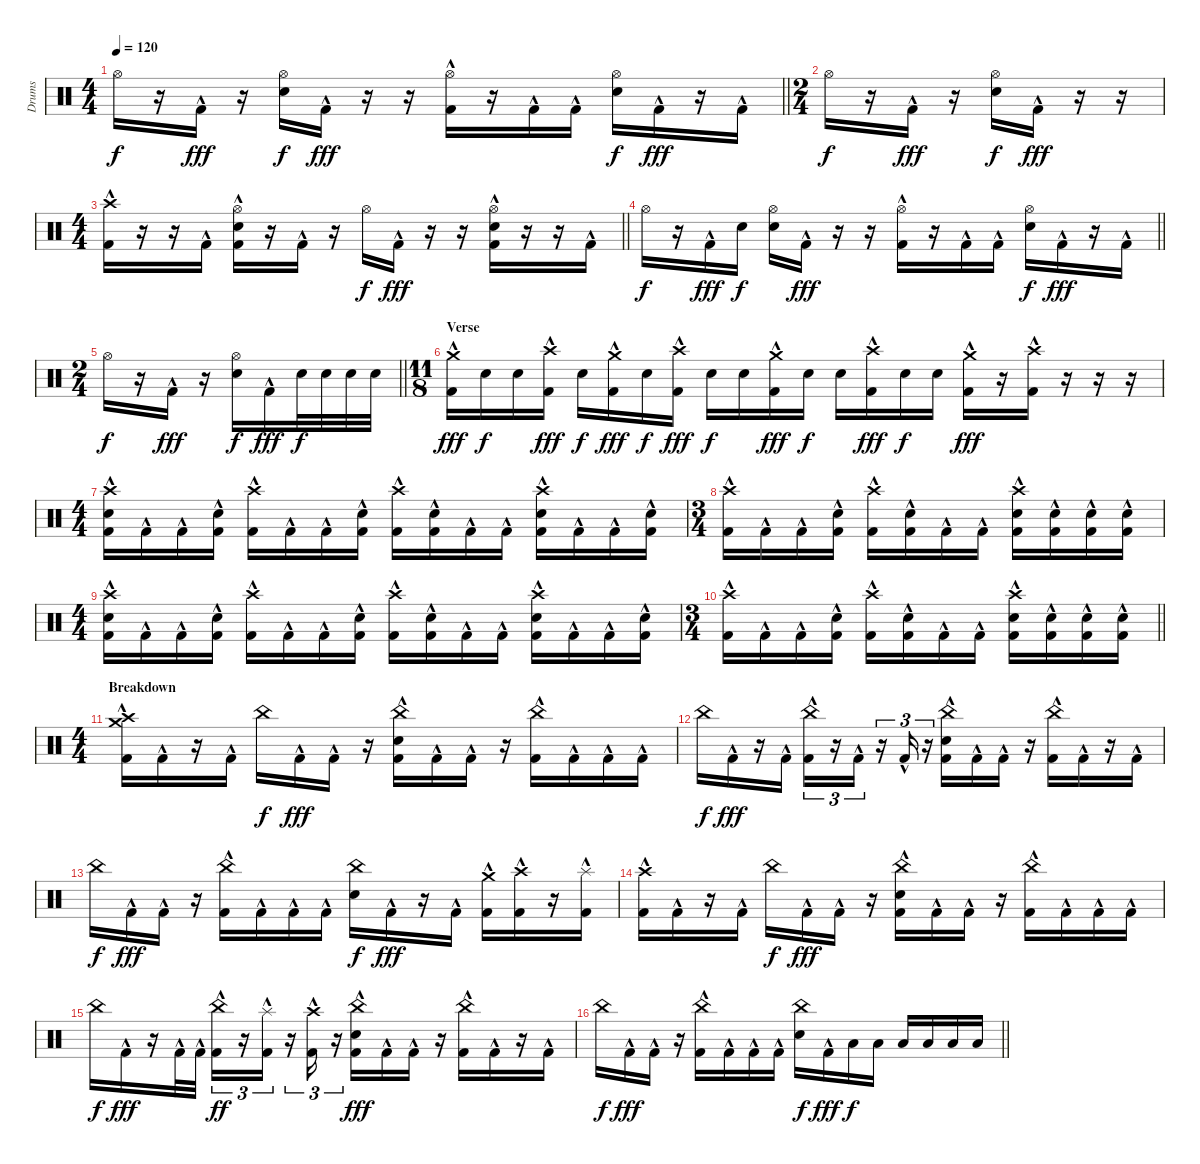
\track ("Drums" "Drums") {instrument percussion}
\staff {score}
\articulation defaults
\ts (4 4)
\tempo 120
\clef neutral
\barLineRight lightlight
\ks c "Hi-Hat (open)".16{dy f}
r.16 "Kick (hit) 2"{hac}.16{dy fff} r.16 ("Electric Snare (hit)" "Hi-Hat (open)").16{dy f} "Kick (hit) 2"{hac}.16{dy fff} r.16 r.16 ("Kick (hit) 2"{hac} "Hi-Hat (open)").16 r.16 "Kick (hit) 2"{hac}.16 "Kick (hit) 2"{hac}.16 ("Electric Snare (hit)" "Hi-Hat (open)").16{dy f} "Kick (hit) 2"{hac}.16{dy fff} r.16 "Kick (hit) 2"{hac}.16 |
\ts (2 4)
"Hi-Hat (open)".16{dy f} r.16 "Kick (hit) 2"{hac}.16{dy fff} r.16 ("Electric Snare (hit)" "Hi-Hat (open)").16{dy f} "Kick (hit) 2"{hac}.16{dy fff} r.16 r.16 |
\ts (4 4)
\barLineRight lightlight
("Kick (hit) 2"{hac} "Crash high (hit)").16 r.16 r.16 "Kick (hit) 2"{hac}.16 ("Kick (hit) 2"{hac} "Electric Snare (hit)" "Hi-Hat (open)").16 r.16 "Kick (hit) 2"{hac}.16 r.16 "Hi-Hat (open)".16{dy f} "Kick (hit) 2"{hac}.16{dy fff} r.16 r.16 ("Kick (hit) 2"{hac} "Electric Snare (hit)" "Hi-Hat (open)").16 r.16 r.16 "Kick (hit) 2"{hac}.16 |
\barLineRight lightlight "Hi-Hat (open)".16{dy f}
r.16 "Kick (hit) 2"{hac}.16{dy fff} "Snare (hit)".16{dy f} ("Electric Snare (hit)" "Hi-Hat (open)").16 "Kick (hit) 2"{hac}.16{dy fff} r.16 r.16 ("Kick (hit) 2"{hac} "Hi-Hat (open)").16 r.16 "Kick (hit) 2"{hac}.16 "Kick (hit) 2"{hac}.16 ("Electric Snare (hit)" "Hi-Hat (open)").16{dy f} "Kick (hit) 2"{hac}.16{dy fff} r.16 "Kick (hit) 2"{hac}.16 |
\ts (2 4)
\barLineRight lightlight "Hi-Hat (open)".16{dy f}
r.16 "Kick (hit) 2"{hac}.16{dy fff} r.16 ("Electric Snare (hit)" "Hi-Hat (open)").16{dy f} "Kick (hit) 2"{hac}.16{dy fff} "Electric Snare (hit)".32{dy f} "Electric Snare (hit)".32 "Electric Snare (hit)".32 "Electric Snare (hit)".32 |
\ts (11 8)
\section ("" "Verse")
("Kick (hit) 2"{hac} "Crash medium (hit)").16{dy fff} "Electric Snare (hit)".16{dy f} "Electric Snare (hit)".16 ("Kick (hit) 2"{hac} "Crash high (hit)").16{dy fff} "Electric Snare (hit)".16{dy f} ("Kick (hit) 2"{hac} "Crash medium (hit)").16{dy fff} "Electric Snare (hit)".16{dy f} ("Kick (hit) 2"{hac} "Crash high (hit)").16{dy fff} "Electric Snare (hit)".16{dy f} "Electric Snare (hit)".16 ("Kick (hit) 2"{hac} "Crash medium (hit)").16{dy fff} "Electric Snare (hit)".16{dy f} "Electric Snare (hit)".16 ("Kick (hit) 2"{hac} "Crash high (hit)").16{dy fff} "Electric Snare (hit)".16{dy f} "Electric Snare (hit)".16 ("Kick (hit) 2"{hac} "Crash medium (hit)").16{dy fff} r.16 ("Kick (hit) 2"{hac} "Crash high (hit)").16 r.16 r.16 r.16 |
\ts (4 4)
("Kick (hit) 2"{hac} "Electric Snare (hit)" "Crash high (hit)").16 "Kick (hit) 2"{hac}.16 "Kick (hit) 2"{hac}.16 ("Kick (hit) 2"{hac} "Electric Snare (hit)").16 ("Kick (hit) 2"{hac} "Crash high (hit)").16 "Kick (hit) 2"{hac}.16 "Kick (hit) 2"{hac}.16 ("Kick (hit) 2"{hac} "Electric Snare (hit)").16 ("Kick (hit) 2"{hac} "Crash high (hit)").16 ("Kick (hit) 2"{hac} "Electric Snare (hit)").16 "Kick (hit) 2"{hac}.16 "Kick (hit) 2"{hac}.16 ("Kick (hit) 2"{hac} "Electric Snare (hit)" "Crash high (hit)").16 "Kick (hit) 2"{hac}.16 "Kick (hit) 2"{hac}.16 ("Kick (hit) 2"{hac} "Electric Snare (hit)").16 |
\ts (3 4)
("Kick (hit) 2"{hac} "Crash high (hit)").16 "Kick (hit) 2"{hac}.16 "Kick (hit) 2"{hac}.16 ("Kick (hit) 2"{hac} "Electric Snare (hit)").16 ("Kick (hit) 2"{hac} "Crash high (hit)").16 ("Kick (hit) 2"{hac} "Electric Snare (hit)").16 "Kick (hit) 2"{hac}.16 "Kick (hit) 2"{hac}.16 ("Kick (hit) 2"{hac} "Electric Snare (hit)" "Crash high (hit)").16 ("Kick (hit) 2"{hac} "Electric Snare (hit)").16 ("Kick (hit) 2"{hac} "Electric Snare (hit)").16 ("Kick (hit) 2"{hac} "Electric Snare (hit)").16 |
\ts (4 4)
("Kick (hit) 2"{hac} "Electric Snare (hit)" "Crash high (hit)").16 "Kick (hit) 2"{hac}.16 "Kick (hit) 2"{hac}.16 ("Kick (hit) 2"{hac} "Electric Snare (hit)").16 ("Kick (hit) 2"{hac} "Crash high (hit)").16 "Kick (hit) 2"{hac}.16 "Kick (hit) 2"{hac}.16 ("Kick (hit) 2"{hac} "Electric Snare (hit)").16 ("Kick (hit) 2"{hac} "Crash high (hit)").16 ("Kick (hit) 2"{hac} "Electric Snare (hit)").16 "Kick (hit) 2"{hac}.16 "Kick (hit) 2"{hac}.16 ("Kick (hit) 2"{hac} "Electric Snare (hit)" "Crash high (hit)").16 "Kick (hit) 2"{hac}.16 "Kick (hit) 2"{hac}.16 ("Kick (hit) 2"{hac} "Electric Snare (hit)").16 |
\ts (3 4)
\barLineRight lightlight
("Kick (hit) 2"{hac} "Crash high (hit)").16 "Kick (hit) 2"{hac}.16 "Kick (hit) 2"{hac}.16 ("Kick (hit) 2"{hac} "Electric Snare (hit)").16 ("Kick (hit) 2"{hac} "Crash high (hit)").16 ("Kick (hit) 2"{hac} "Electric Snare (hit)").16 "Kick (hit) 2"{hac}.16 "Kick (hit) 2"{hac}.16 ("Kick (hit) 2"{hac} "Electric Snare (hit)" "Crash high (hit)").16 ("Kick (hit) 2"{hac} "Electric Snare (hit)").16 ("Kick (hit) 2"{hac} "Electric Snare (hit)").16 ("Kick (hit) 2"{hac} "Electric Snare (hit)").16 |
\ts (4 4)
\section ("" "Breakdown")
("Crash medium (hit)" "Crash high (hit)" "Kick (hit) 2"{hac}).16 "Kick (hit) 2"{hac}.16 r.16 "Kick (hit) 2"{hac}.16 "China (hit)".16{dy f} "Kick (hit) 2"{hac}.16{dy fff} "Kick (hit) 2"{hac}.16 r.16 ("China (hit)" "Electric Snare (hit)" "Kick (hit) 2"{hac}).16 "Kick (hit) 2"{hac}.16 "Kick (hit) 2"{hac}.16 r.16 ("China (hit)" "Kick (hit) 2"{hac}).16 "Kick (hit) 2"{hac}.16 "Kick (hit) 2"{hac}.16 "Kick (hit) 2"{hac}.16 |
"China (hit)".16{dy f} "Kick (hit) 2"{hac}.16{dy fff} r.16 "Kick (hit) 2"{hac}.16 ("China (hit)" "Kick (hit) 2"{hac}).16{tu (3 2)} r.16{tu (3 2)} "Kick (hit) 2"{hac}.16{tu (3 2)} r.16{tu (3 2)} "Kick (hit) 2"{hac}.16{tu (3 2)} r.16{tu (3 2)} ("China (hit)" "Electric Snare (hit)" "Kick (hit) 2"{hac}).16 "Kick (hit) 2"{hac}.16 "Kick (hit) 2"{hac}.16 r.16 ("China (hit)" "Kick (hit) 2"{hac}).16 "Kick (hit) 2"{hac}.16 r.16 "Kick (hit) 2"{hac}.16 |
"China (hit)".16{dy f} "Kick (hit) 2"{hac}.16{dy fff} "Kick (hit) 2"{hac}.16 r.16 ("China (hit)" "Kick (hit) 2"{hac}).16 "Kick (hit) 2"{hac}.16 "Kick (hit) 2"{hac}.16 "Kick (hit) 2"{hac}.16 ("China (hit)" "Electric Snare (hit)").16{dy f} "Kick (hit) 2"{hac}.16{dy fff} r.16 "Kick (hit) 2"{hac}.16 ("Crash medium (hit)" "Kick (hit) 2"{hac}).16 ("Crash high (hit)" "Kick (hit) 2"{hac}).16 r.16 ("Splash (hit)"{hac} "Kick (hit) 2"{hac}).16 |
("Crash high (hit)" "Kick (hit) 2"{hac}).16 "Kick (hit) 2"{hac}.16 r.16 "Kick (hit) 2"{hac}.16 "China (hit)".16{dy f} "Kick (hit) 2"{hac}.16{dy fff} "Kick (hit) 2"{hac}.16 r.16 ("China (hit)" "Electric Snare (hit)" "Kick (hit) 2"{hac}).16 "Kick (hit) 2"{hac}.16 "Kick (hit) 2"{hac}.16 r.16 ("China (hit)" "Kick (hit) 2"{hac}).16 "Kick (hit) 2"{hac}.16 "Kick (hit) 2"{hac}.16 "Kick (hit) 2"{hac}.16 |
"China (hit)".16{dy f} "Kick (hit) 2"{hac}.16{dy fff} r.16 "Kick (hit) 2"{hac}.32 "Kick (hit) 2"{hac}.32 ("China (hit)" "Kick (hit) 2"{hac}).16{tu (3 2) dy ff} r.16{tu (3 2)} ("Splash (hit)"{hac} "Kick (hit) 2"{hac}).16{tu (3 2)} r.16{tu (3 2)} ("Crash high (hit)" "Kick (hit) 2"{hac}).16{tu (3 2)} r.16{tu (3 2)} ("China (hit)" "Electric Snare (hit)" "Kick (hit) 2"{hac}).16{dy fff} "Kick (hit) 2"{hac}.16 "Kick (hit) 2"{hac}.16 r.16 ("China (hit)" "Kick (hit) 2"{hac}).16 "Kick (hit) 2"{hac}.16 r.16 "Kick (hit) 2"{hac}.16 |
\barLineRight lightlight "China (hit)".16{dy f} "Kick (hit) 2"{hac}.16{dy fff} "Kick (hit) 2"{hac}.16
r.16 ("China (hit)" "Kick (hit) 2"{hac}).16 "Kick (hit) 2"{hac}.16 "Kick (hit) 2"{hac}.16 "Kick (hit) 2"{hac}.16 ("China (hit)" "Electric Snare (hit)").16{dy f} "Kick (hit) 2"{hac}.16{dy fff} "Low Floor Tom (hit)".16{dy f} "Low Floor Tom (hit)".16 "Low Tom (hit)".16 "Low Tom (hit)".16 "Low Tom (hit)".16 "Low Tom (hit)".16
